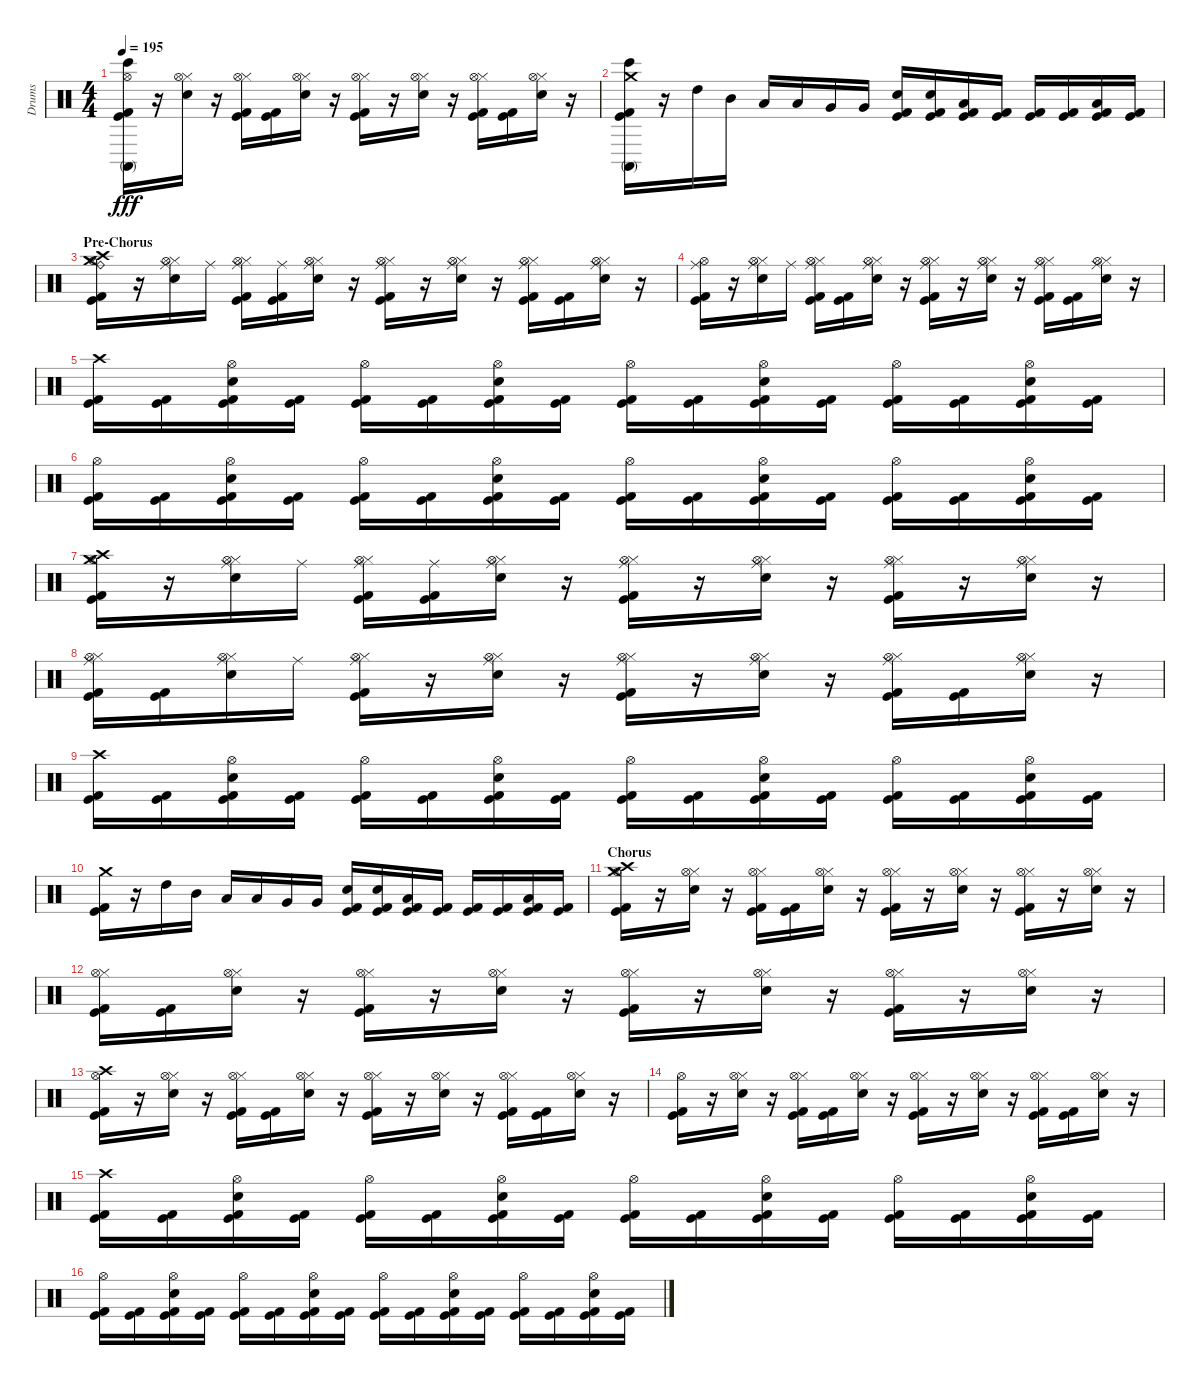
\track ("Drums" "Drums") {instrument percussion}
\staff {score}
\articulation defaults
\ts (4 4)
\tempo 195
\clef neutral
\ks c
("Kick (hit) 2" "Kick (hit)" "Conga high (mute)" "Bongo High (hit)" "Hi-Hat (open)").16{dy fff} r.16 ("Snare (hit) 2" "Hi-Hat (closed)" "Hi-Hat (open)").16 r.16 ("Kick (hit) 2" "Kick (hit)" "Hi-Hat (closed)" "Hi-Hat (open)").16 ("Kick (hit) 2" "Kick (hit)").16 ("Snare (hit) 2" "Hi-Hat (closed)" "Hi-Hat (open)").16 r.16 ("Kick (hit) 2" "Kick (hit)" "Hi-Hat (closed)" "Hi-Hat (open)").16 r.16 ("Snare (hit) 2" "Hi-Hat (closed)" "Hi-Hat (open)").16 r.16 ("Kick (hit) 2" "Kick (hit)" "Hi-Hat (closed)" "Hi-Hat (open)").16 ("Kick (hit) 2" "Kick (hit)").16 ("Snare (hit) 2" "Hi-Hat (closed)" "Hi-Hat (open)").16 r.16 |
("Kick (hit) 2" "Kick (hit)" "Conga high (mute)" "Bongo High (hit)" "Crash medium (hit)").16 r.16 "High Tom (hit)".16 "Mid Tom (hit)".16 "Low Tom (hit)".16 "Low Tom (hit)".16 "Very Low Tom (hit)".16 "Very Low Tom (hit)".16 ("Kick (hit) 2" "Kick (hit)" "Snare (hit) 2").16 ("Kick (hit) 2" "Kick (hit)" "Snare (hit) 2").16 ("Kick (hit) 2" "Kick (hit)" "Low Tom (hit)").16 ("Kick (hit) 2" "Kick (hit)").16 ("Kick (hit) 2" "Kick (hit)").16 ("Kick (hit) 2" "Kick (hit)").16 ("Kick (hit) 2" "Kick (hit)" "Low Floor Tom (hit)").16 ("Kick (hit) 2" "Kick (hit)").16 |
\section ("" "Pre-Chorus")
("Kick (hit) 2" "Kick (hit)" "Crash high (hit)" "Ride (bell)" "Hi-Hat (open)" "Crash medium (hit)").16 r.16 ("Snare (hit) 2" "Hi-Hat (closed)" "Ride (middle)" "Hi-Hat (open)").16 "Ride (middle)".16 ("Kick (hit) 2" "Kick (hit)" "Hi-Hat (closed)" "Ride (middle)" "Hi-Hat (open)").16 ("Kick (hit) 2" "Kick (hit)" "Ride (middle)").16 ("Snare (hit) 2" "Hi-Hat (closed)" "Ride (middle)" "Hi-Hat (open)").16 r.16 ("Kick (hit) 2" "Kick (hit)" "Hi-Hat (closed)" "Ride (middle)" "Hi-Hat (open)").16 r.16 ("Snare (hit) 2" "Hi-Hat (closed)" "Ride (middle)" "Hi-Hat (open)").16 r.16 ("Kick (hit) 2" "Kick (hit)" "Hi-Hat (closed)" "Ride (middle)" "Hi-Hat (open)").16 ("Kick (hit) 2" "Kick (hit)").16 ("Snare (hit) 2" "Hi-Hat (closed)" "Ride (middle)" "Hi-Hat (open)").16 r.16 |
("Kick (hit) 2" "Kick (hit)" "Ride (middle)" "Hi-Hat (open)").16 r.16 ("Snare (hit) 2" "Hi-Hat (closed)" "Ride (middle)" "Hi-Hat (open)").16 "Ride (middle)".16 ("Kick (hit) 2" "Kick (hit)" "Hi-Hat (closed)" "Ride (middle)" "Hi-Hat (open)").16 ("Kick (hit) 2" "Kick (hit)").16 ("Snare (hit) 2" "Hi-Hat (closed)" "Ride (middle)" "Hi-Hat (open)").16 r.16 ("Kick (hit) 2" "Kick (hit)" "Hi-Hat (closed)" "Ride (middle)" "Hi-Hat (open)").16 r.16 ("Snare (hit) 2" "Hi-Hat (closed)" "Ride (middle)" "Hi-Hat (open)").16 r.16 ("Kick (hit) 2" "Kick (hit)" "Hi-Hat (closed)" "Ride (middle)" "Hi-Hat (open)").16 ("Kick (hit) 2" "Kick (hit)").16 ("Snare (hit) 2" "Hi-Hat (closed)" "Ride (middle)" "Hi-Hat (open)").16 r.16 |
("Kick (hit) 2" "Kick (hit)" "Crash high (hit)").16 ("Kick (hit) 2" "Kick (hit)").16 ("Kick (hit) 2" "Kick (hit)" "Snare (hit) 2" "Hi-Hat (open)").16 ("Kick (hit) 2" "Kick (hit)").16 ("Kick (hit) 2" "Kick (hit)" "Hi-Hat (open)").16 ("Kick (hit) 2" "Kick (hit)").16 ("Kick (hit) 2" "Kick (hit)" "Snare (hit) 2" "Hi-Hat (open)").16 ("Kick (hit) 2" "Kick (hit)").16 ("Kick (hit) 2" "Kick (hit)" "Hi-Hat (open)").16 ("Kick (hit) 2" "Kick (hit)").16 ("Kick (hit) 2" "Kick (hit)" "Snare (hit) 2" "Hi-Hat (open)").16 ("Kick (hit) 2" "Kick (hit)").16 ("Kick (hit) 2" "Kick (hit)" "Hi-Hat (open)").16 ("Kick (hit) 2" "Kick (hit)").16 ("Kick (hit) 2" "Kick (hit)" "Snare (hit) 2" "Hi-Hat (open)").16 ("Kick (hit) 2" "Kick (hit)").16 |
("Kick (hit) 2" "Kick (hit)" "Hi-Hat (open)").16 ("Kick (hit) 2" "Kick (hit)").16 ("Kick (hit) 2" "Kick (hit)" "Snare (hit) 2" "Hi-Hat (open)").16 ("Kick (hit) 2" "Kick (hit)").16 ("Kick (hit) 2" "Kick (hit)" "Hi-Hat (open)").16 ("Kick (hit) 2" "Kick (hit)").16 ("Kick (hit) 2" "Kick (hit)" "Snare (hit) 2" "Hi-Hat (open)").16 ("Kick (hit) 2" "Kick (hit)").16 ("Kick (hit) 2" "Kick (hit)" "Hi-Hat (open)").16 ("Kick (hit) 2" "Kick (hit)").16 ("Kick (hit) 2" "Kick (hit)" "Snare (hit) 2" "Hi-Hat (open)").16 ("Kick (hit) 2" "Kick (hit)").16 ("Kick (hit) 2" "Kick (hit)" "Hi-Hat (open)").16 ("Kick (hit) 2" "Kick (hit)").16 ("Kick (hit) 2" "Kick (hit)" "Snare (hit) 2" "Hi-Hat (open)").16 ("Kick (hit) 2" "Kick (hit)").16 |
("Kick (hit) 2" "Kick (hit)" "Crash high (hit)" "Hi-Hat (open)" "Crash medium (hit)").16 r.16 ("Snare (hit) 2" "Hi-Hat (closed)" "Ride (middle)" "Hi-Hat (open)").16 "Ride (middle)".16 ("Kick (hit) 2" "Kick (hit)" "Hi-Hat (closed)" "Ride (middle)" "Hi-Hat (open)").16 ("Kick (hit) 2" "Kick (hit)" "Ride (middle)").16 ("Snare (hit) 2" "Hi-Hat (closed)" "Ride (middle)" "Hi-Hat (open)").16 r.16 ("Kick (hit) 2" "Kick (hit)" "Hi-Hat (closed)" "Ride (middle)" "Hi-Hat (open)").16 r.16 ("Snare (hit) 2" "Hi-Hat (closed)" "Ride (middle)" "Hi-Hat (open)").16 r.16 ("Kick (hit) 2" "Kick (hit)" "Hi-Hat (closed)" "Ride (middle)" "Hi-Hat (open)").16 r.16 ("Snare (hit) 2" "Hi-Hat (closed)" "Ride (middle)" "Hi-Hat (open)").16 r.16 |
("Kick (hit) 2" "Kick (hit)" "Hi-Hat (closed)" "Ride (middle)" "Hi-Hat (open)").16 ("Kick (hit) 2" "Kick (hit)").16 ("Snare (hit) 2" "Hi-Hat (closed)" "Ride (middle)" "Hi-Hat (open)").16 "Ride (middle)".16 ("Kick (hit) 2" "Kick (hit)" "Hi-Hat (closed)" "Ride (middle)" "Hi-Hat (open)").16 r.16 ("Snare (hit) 2" "Hi-Hat (closed)" "Ride (middle)" "Hi-Hat (open)").16 r.16 ("Kick (hit) 2" "Kick (hit)" "Hi-Hat (closed)" "Ride (middle)" "Hi-Hat (open)").16 r.16 ("Snare (hit) 2" "Hi-Hat (closed)" "Ride (middle)" "Hi-Hat (open)").16 r.16 ("Kick (hit) 2" "Kick (hit)" "Hi-Hat (closed)" "Ride (middle)" "Hi-Hat (open)").16 ("Kick (hit) 2" "Kick (hit)").16 ("Snare (hit) 2" "Hi-Hat (closed)" "Ride (middle)" "Hi-Hat (open)").16 r.16 |
("Kick (hit) 2" "Kick (hit)" "Crash high (hit)").16 ("Kick (hit) 2" "Kick (hit)").16 ("Kick (hit) 2" "Kick (hit)" "Snare (hit) 2" "Hi-Hat (open)").16 ("Kick (hit) 2" "Kick (hit)").16 ("Kick (hit) 2" "Kick (hit)" "Hi-Hat (open)").16 ("Kick (hit) 2" "Kick (hit)").16 ("Kick (hit) 2" "Kick (hit)" "Snare (hit) 2" "Hi-Hat (open)").16 ("Kick (hit) 2" "Kick (hit)").16 ("Kick (hit) 2" "Kick (hit)" "Hi-Hat (open)").16 ("Kick (hit) 2" "Kick (hit)").16 ("Kick (hit) 2" "Kick (hit)" "Snare (hit) 2" "Hi-Hat (open)").16 ("Kick (hit) 2" "Kick (hit)").16 ("Kick (hit) 2" "Kick (hit)" "Hi-Hat (open)").16 ("Kick (hit) 2" "Kick (hit)").16 ("Kick (hit) 2" "Kick (hit)" "Snare (hit) 2" "Hi-Hat (open)").16 ("Kick (hit) 2" "Kick (hit)").16 |
("Kick (hit) 2" "Kick (hit)" "Crash medium (hit)").16 r.16 "High Tom (hit)".16 "Mid Tom (hit)".16 "Low Tom (hit)".16 "Low Tom (hit)".16 "Very Low Tom (hit)".16 "Very Low Tom (hit)".16 ("Kick (hit) 2" "Kick (hit)" "Snare (hit) 2").16 ("Kick (hit) 2" "Kick (hit)" "Snare (hit) 2").16 ("Kick (hit) 2" "Kick (hit)" "Low Tom (hit)").16 ("Kick (hit) 2" "Kick (hit)").16 ("Kick (hit) 2" "Kick (hit)").16 ("Kick (hit) 2" "Kick (hit)").16 ("Kick (hit) 2" "Kick (hit)" "Low Floor Tom (hit)").16 ("Kick (hit) 2" "Kick (hit)").16 |
\section ("" "Chorus")
("Kick (hit) 2" "Kick (hit)" "Crash high (hit)" "Hi-Hat (open)" "Crash medium (hit)").16 r.16 ("Snare (hit) 2" "Hi-Hat (closed)" "Hi-Hat (open)").16 r.16 ("Kick (hit) 2" "Kick (hit)" "Hi-Hat (closed)" "Hi-Hat (open)").16 ("Kick (hit) 2" "Kick (hit)").16 ("Snare (hit) 2" "Hi-Hat (closed)" "Hi-Hat (open)").16 r.16 ("Kick (hit) 2" "Kick (hit)" "Hi-Hat (closed)" "Hi-Hat (open)").16 r.16 ("Snare (hit) 2" "Hi-Hat (closed)" "Hi-Hat (open)").16 r.16 ("Kick (hit) 2" "Kick (hit)" "Hi-Hat (closed)" "Hi-Hat (open)").16 r.16 ("Snare (hit) 2" "Hi-Hat (closed)" "Hi-Hat (open)").16 r.16 |
("Kick (hit) 2" "Kick (hit)" "Hi-Hat (closed)" "Hi-Hat (open)").16 ("Kick (hit) 2" "Kick (hit)").16 ("Snare (hit) 2" "Hi-Hat (closed)" "Hi-Hat (open)").16 r.16 ("Kick (hit) 2" "Kick (hit)" "Hi-Hat (closed)" "Hi-Hat (open)").16 r.16 ("Snare (hit) 2" "Hi-Hat (closed)" "Hi-Hat (open)").16 r.16 ("Kick (hit) 2" "Kick (hit)" "Hi-Hat (closed)" "Hi-Hat (open)").16 r.16 ("Snare (hit) 2" "Hi-Hat (closed)" "Hi-Hat (open)").16 r.16 ("Kick (hit) 2" "Kick (hit)" "Hi-Hat (closed)" "Hi-Hat (open)").16 r.16 ("Snare (hit) 2" "Hi-Hat (closed)" "Hi-Hat (open)").16 r.16 |
("Kick (hit) 2" "Kick (hit)" "Crash high (hit)" "Hi-Hat (open)").16 r.16 ("Snare (hit) 2" "Hi-Hat (closed)" "Hi-Hat (open)").16 r.16 ("Kick (hit) 2" "Kick (hit)" "Hi-Hat (closed)" "Hi-Hat (open)").16 ("Kick (hit) 2" "Kick (hit)").16 ("Snare (hit) 2" "Hi-Hat (closed)" "Hi-Hat (open)").16 r.16 ("Kick (hit) 2" "Kick (hit)" "Hi-Hat (closed)" "Hi-Hat (open)").16 r.16 ("Snare (hit) 2" "Hi-Hat (closed)" "Hi-Hat (open)").16 r.16 ("Kick (hit) 2" "Kick (hit)" "Hi-Hat (closed)" "Hi-Hat (open)").16 ("Kick (hit) 2" "Kick (hit)").16 ("Snare (hit) 2" "Hi-Hat (closed)" "Hi-Hat (open)").16 r.16 |
("Kick (hit) 2" "Kick (hit)" "Hi-Hat (open)").16 r.16 ("Snare (hit) 2" "Hi-Hat (closed)" "Hi-Hat (open)").16 r.16 ("Kick (hit) 2" "Kick (hit)" "Hi-Hat (closed)" "Hi-Hat (open)").16 ("Kick (hit) 2" "Kick (hit)").16 ("Snare (hit) 2" "Hi-Hat (closed)" "Hi-Hat (open)").16 r.16 ("Kick (hit) 2" "Kick (hit)" "Hi-Hat (closed)" "Hi-Hat (open)").16 r.16 ("Snare (hit) 2" "Hi-Hat (closed)" "Hi-Hat (open)").16 r.16 ("Kick (hit) 2" "Kick (hit)" "Hi-Hat (closed)" "Hi-Hat (open)").16 ("Kick (hit) 2" "Kick (hit)").16 ("Snare (hit) 2" "Hi-Hat (closed)" "Hi-Hat (open)").16 r.16 |
("Kick (hit) 2" "Kick (hit)" "Crash high (hit)").16 ("Kick (hit) 2" "Kick (hit)").16 ("Kick (hit) 2" "Kick (hit)" "Snare (hit) 2" "Hi-Hat (open)").16 ("Kick (hit) 2" "Kick (hit)").16 ("Kick (hit) 2" "Kick (hit)" "Hi-Hat (open)").16 ("Kick (hit) 2" "Kick (hit)").16 ("Kick (hit) 2" "Kick (hit)" "Snare (hit) 2" "Hi-Hat (open)").16 ("Kick (hit) 2" "Kick (hit)").16 ("Kick (hit) 2" "Kick (hit)" "Hi-Hat (open)").16 ("Kick (hit) 2" "Kick (hit)").16 ("Kick (hit) 2" "Kick (hit)" "Snare (hit) 2" "Hi-Hat (open)").16 ("Kick (hit) 2" "Kick (hit)").16 ("Kick (hit) 2" "Kick (hit)" "Hi-Hat (open)").16 ("Kick (hit) 2" "Kick (hit)").16 ("Kick (hit) 2" "Kick (hit)" "Snare (hit) 2" "Hi-Hat (open)").16 ("Kick (hit) 2" "Kick (hit)").16 |
("Kick (hit) 2" "Kick (hit)" "Hi-Hat (open)").16 ("Kick (hit) 2" "Kick (hit)").16 ("Kick (hit) 2" "Kick (hit)" "Snare (hit) 2" "Hi-Hat (open)").16 ("Kick (hit) 2" "Kick (hit)").16 ("Kick (hit) 2" "Kick (hit)" "Hi-Hat (open)").16 ("Kick (hit) 2" "Kick (hit)").16 ("Kick (hit) 2" "Kick (hit)" "Snare (hit) 2" "Hi-Hat (open)").16 ("Kick (hit) 2" "Kick (hit)").16 ("Kick (hit) 2" "Kick (hit)" "Hi-Hat (open)").16 ("Kick (hit) 2" "Kick (hit)").16 ("Kick (hit) 2" "Kick (hit)" "Snare (hit) 2" "Hi-Hat (open)").16 ("Kick (hit) 2" "Kick (hit)").16 ("Kick (hit) 2" "Kick (hit)" "Hi-Hat (open)").16 ("Kick (hit) 2" "Kick (hit)").16 ("Kick (hit) 2" "Kick (hit)" "Snare (hit) 2" "Hi-Hat (open)").16 ("Kick (hit) 2" "Kick (hit)").16
